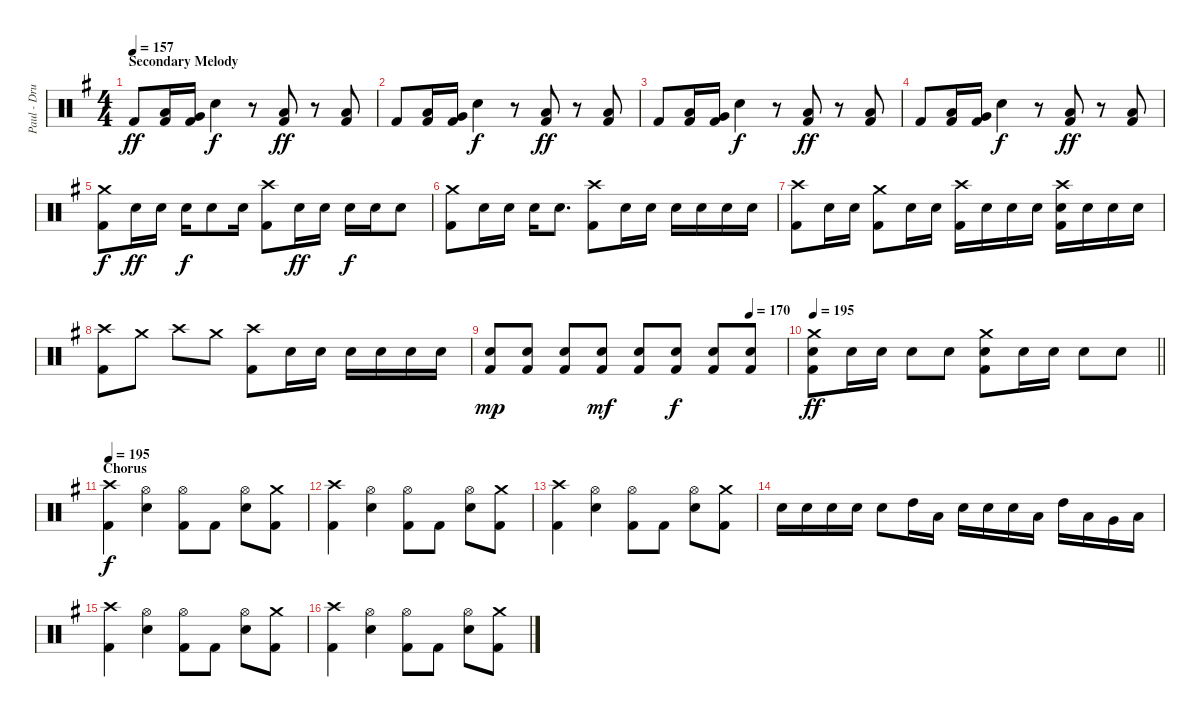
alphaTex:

\track ("Paul - Drums" "Paul - Dru") {instrument percussion}
\staff {score}
\articulation defaults
\ts (4 4)
\section ("" "Secondary Melody")
\tempo 157
\clef neutral
\ks g "Kick (hit) 2".8{dy ff}
("Low Tom (hit)" "Kick (hit) 2").16 ("Very Low Tom (hit)" "Kick (hit) 2").16 "Electric Snare (hit)".4{dy f} r.8 ("Low Tom (hit)" "Kick (hit) 2").8{dy ff} r.8 ("Low Tom (hit)" "Kick (hit) 2").8 |
"Kick (hit) 2".8 ("Low Tom (hit)" "Kick (hit) 2").16 ("Very Low Tom (hit)" "Kick (hit) 2").16 "Electric Snare (hit)".4{dy f} r.8 ("Low Tom (hit)" "Kick (hit) 2").8{dy ff} r.8 ("Low Tom (hit)" "Kick (hit) 2").8 |
"Kick (hit) 2".8 ("Low Tom (hit)" "Kick (hit) 2").16 ("Very Low Tom (hit)" "Kick (hit) 2").16 "Electric Snare (hit)".4{dy f} r.8 ("Low Tom (hit)" "Kick (hit) 2").8{dy ff} r.8 ("Low Tom (hit)" "Kick (hit) 2").8 |
"Kick (hit) 2".8 ("Low Tom (hit)" "Kick (hit) 2").16 ("Very Low Tom (hit)" "Kick (hit) 2").16 "Electric Snare (hit)".4{dy f} r.8 ("Low Tom (hit)" "Kick (hit) 2").8{dy ff} r.8 ("Low Tom (hit)" "Kick (hit) 2").8 |
("Crash medium (hit)" "Kick (hit) 2").8{dy f} "Electric Snare (hit)".16{dy ff} "Electric Snare (hit)".16 "Electric Snare (hit)".16{dy f} "Electric Snare (hit)".8 "Electric Snare (hit)".16 ("Crash high (hit)" "Kick (hit) 2").8 "Electric Snare (hit)".16{dy ff} "Electric Snare (hit)".16 "Electric Snare (hit)".16{dy f} "Electric Snare (hit)".16 "Electric Snare (hit)".8 |
("Crash medium (hit)" "Kick (hit) 2").8 "Electric Snare (hit)".16 "Electric Snare (hit)".16 "Electric Snare (hit)".16 "Electric Snare (hit)".8{d} ("Crash high (hit)" "Kick (hit) 2").8 "Electric Snare (hit)".16 "Electric Snare (hit)".16 "Electric Snare (hit)".16 "Electric Snare (hit)".16 "Electric Snare (hit)".16 "Electric Snare (hit)".16 |
("Crash high (hit)" "Kick (hit) 2").8 "Electric Snare (hit)".16 "Electric Snare (hit)".16 ("Crash medium (hit)" "Kick (hit) 2").8 "Electric Snare (hit)".16 "Electric Snare (hit)".16 ("Crash high (hit)" "Kick (hit) 2").16 "Electric Snare (hit)".16 "Electric Snare (hit)".16 "Electric Snare (hit)".16 ("Crash high (hit)" "Electric Snare (hit)" "Kick (hit) 2").16 "Electric Snare (hit)".16 "Electric Snare (hit)".16 "Electric Snare (hit)".16 |
("Crash high (hit)" "Kick (hit) 2").8 "Crash medium (hit)".8 "Crash high (hit)".8 "Crash medium (hit)".8 ("Crash high (hit)" "Kick (hit) 2").8 "Electric Snare (hit)".16 "Electric Snare (hit)".16 "Electric Snare (hit)".16 "Electric Snare (hit)".16 "Electric Snare (hit)".16 "Electric Snare (hit)".16 |
\tempo (170 0.875)
("Electric Snare (hit)" "Kick (hit) 2").8{dy mp} ("Electric Snare (hit)" "Kick (hit) 2").8 ("Electric Snare (hit)" "Kick (hit) 2").8 ("Electric Snare (hit)" "Kick (hit) 2").8{dy mf} ("Electric Snare (hit)" "Kick (hit) 2").8 ("Electric Snare (hit)" "Kick (hit) 2").8{dy f} ("Electric Snare (hit)" "Kick (hit) 2").8 ("Electric Snare (hit)" "Kick (hit) 2").8 |
\tempo 195
\barLineRight lightlight
("Crash medium (hit)" "Electric Snare (hit)" "Kick (hit) 2").8{dy ff} "Electric Snare (hit)".16 "Electric Snare (hit)".16 "Electric Snare (hit)".8 "Electric Snare (hit)".8 ("Crash medium (hit)" "Electric Snare (hit)" "Kick (hit) 2").8 "Electric Snare (hit)".16 "Electric Snare (hit)".16 "Electric Snare (hit)".8 "Electric Snare (hit)".8 |
\section ("" "Chorus")
\tempo 195
("Crash high (hit)" "Kick (hit) 2").4{dy f} ("Hi-Hat (open)" "Electric Snare (hit)").4 ("Hi-Hat (open)" "Kick (hit) 2").8 "Kick (hit) 2".8 ("Hi-Hat (open)" "Electric Snare (hit)").8 ("Crash medium (hit)" "Kick (hit) 2").8 |
("Crash high (hit)" "Kick (hit) 2").4 ("Hi-Hat (open)" "Electric Snare (hit)").4 ("Hi-Hat (open)" "Kick (hit) 2").8 "Kick (hit) 2".8 ("Hi-Hat (open)" "Electric Snare (hit)").8 ("Crash medium (hit)" "Kick (hit) 2").8 |
("Crash high (hit)" "Kick (hit) 2").4 ("Hi-Hat (open)" "Electric Snare (hit)").4 ("Hi-Hat (open)" "Kick (hit) 2").8 "Kick (hit) 2".8 ("Hi-Hat (open)" "Electric Snare (hit)").8 ("Crash medium (hit)" "Kick (hit) 2").8 |
"Electric Snare (hit)".16 "Electric Snare (hit)".16 "Electric Snare (hit)".16 "Electric Snare (hit)".16 "Electric Snare (hit)".8 "High Tom (hit)".16 "Low Tom (hit)".16 "Electric Snare (hit)".16 "Electric Snare (hit)".16 "Electric Snare (hit)".16 "Low Tom (hit)".16 "High Tom (hit)".16 "Low Tom (hit)".16 "Very Low Tom (hit)".16 "Low Floor Tom (hit)".16 |
("Crash high (hit)" "Kick (hit) 2").4 ("Hi-Hat (open)" "Electric Snare (hit)").4 ("Hi-Hat (open)" "Kick (hit) 2").8 "Kick (hit) 2".8 ("Hi-Hat (open)" "Electric Snare (hit)").8 ("Crash medium (hit)" "Kick (hit) 2").8 |
("Crash high (hit)" "Kick (hit) 2").4 ("Hi-Hat (open)" "Electric Snare (hit)").4 ("Hi-Hat (open)" "Kick (hit) 2").8 "Kick (hit) 2".8 ("Hi-Hat (open)" "Electric Snare (hit)").8 ("Crash medium (hit)" "Kick (hit) 2").8
